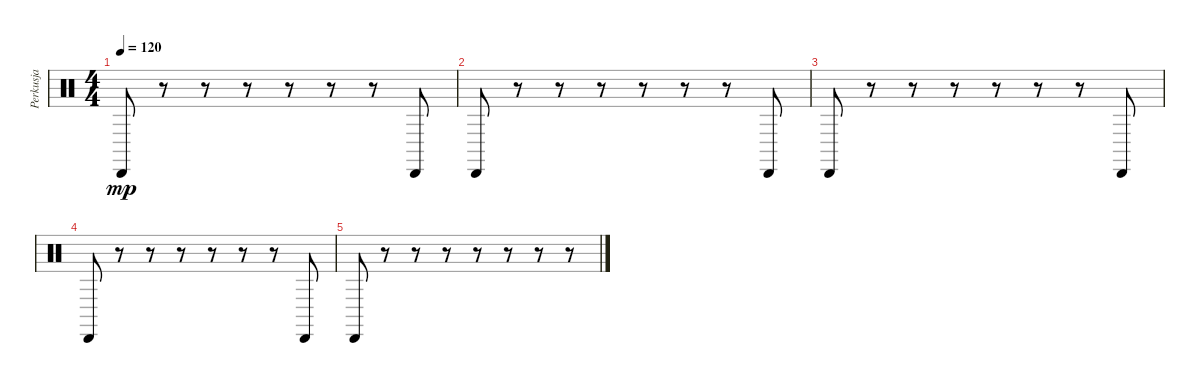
\track ("Perkusja" "Perkusja") {instrument percussion}
\staff {score}
\articulation defaults
\ts (4 4)
\tempo 120
\clef neutral
\ks c "Cabasa (hit)".8{dy mp}
r.8 r.8 r.8 r.8 r.8 r.8 "Cabasa (hit)".8 |
"Cabasa (hit)".8 r.8 r.8 r.8 r.8 r.8 r.8 "Cabasa (hit)".8 |
"Cabasa (hit)".8 r.8 r.8 r.8 r.8 r.8 r.8 "Cabasa (hit)".8 |
"Cabasa (hit)".8 r.8 r.8 r.8 r.8 r.8 r.8 "Cabasa (hit)".8 |
"Cabasa (hit)".8 r.8 r.8 r.8 r.8 r.8 r.8 r.8
